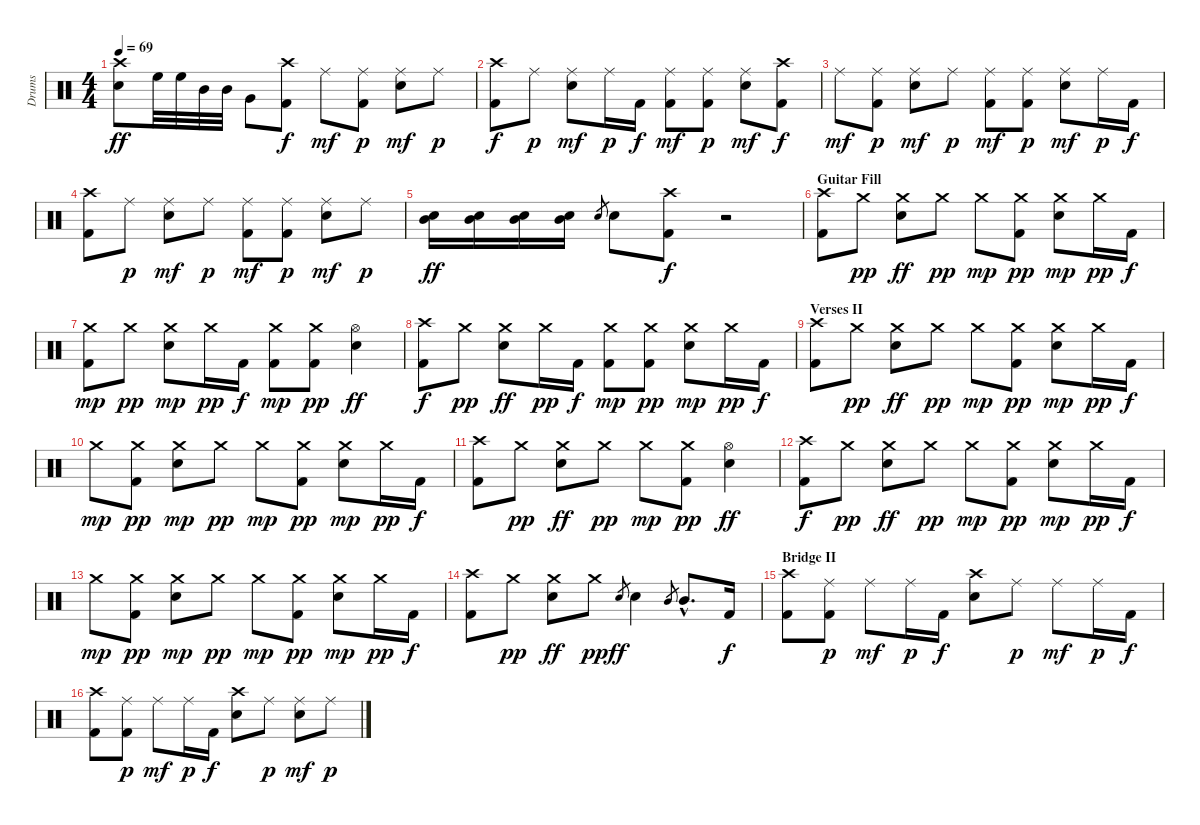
\track ("Drums" "Drums") {instrument percussion}
\staff {score}
\articulation defaults
\ts (4 4)
\tempo 69
\clef neutral
\ks c
("Snare (hit) 2" "Crash high (hit)").8{dy ff} "High Floor Tom (hit)".32 "High Floor Tom (hit)".32 "Mid Tom (hit)".32 "Mid Tom (hit)".32 "Very Low Tom (hit)".8 ("Crash high (hit)" "Kick (hit) 2").8{dy f} "Ride (middle)".8{dy mf} ("Kick (hit) 2" "Ride (middle)").8{dy p} ("Snare (hit) 2" "Ride (middle)").8{dy mf} "Ride (middle)".8{dy p} |
("Crash high (hit)" "Kick (hit) 2").8{dy f} "Ride (middle)".8{dy p} ("Snare (hit) 2" "Ride (middle)").8{dy mf} "Ride (middle)".16{dy p} "Kick (hit) 2".16{dy f} ("Ride (middle)" "Kick (hit) 2").8{dy mf} ("Kick (hit) 2" "Ride (middle)").8{dy p} ("Snare (hit) 2" "Ride (middle)").8{dy mf} ("Kick (hit) 2" "Crash high (hit)").8{dy f} |
"Ride (middle)".8{dy mf} ("Kick (hit) 2" "Ride (middle)").8{dy p} ("Snare (hit) 2" "Ride (middle)").8{dy mf} "Ride (middle)".8{dy p} ("Ride (middle)" "Kick (hit) 2").8{dy mf} ("Kick (hit) 2" "Ride (middle)").8{dy p} ("Snare (hit) 2" "Ride (middle)").8{dy mf} "Ride (middle)".16{dy p} "Kick (hit) 2".16{dy f} |
("Crash high (hit)" "Kick (hit) 2").8 "Ride (middle)".8{dy p} ("Snare (hit) 2" "Ride (middle)").8{dy mf} "Ride (middle)".8{dy p} ("Ride (middle)" "Kick (hit) 2").8{dy mf} ("Kick (hit) 2" "Ride (middle)").8{dy p} ("Snare (hit) 2" "Ride (middle)").8{dy mf} "Ride (middle)".8{dy p} |
("Snare (hit) 2" "Mid Tom (hit)").16{dy ff} ("Mid Tom (hit)" "Snare (hit) 2").16 ("Mid Tom (hit)" "Snare (hit) 2").16 ("Mid Tom (hit)" "Snare (hit) 2").16 "Snare (hit) 2".8{gr} "Snare (hit) 2".8 ("Crash high (hit)" "Kick (hit) 2").8{dy f} r.2 |
\section ("" "Guitar Fill")
("Crash high (hit)" "Kick (hit) 2").8 "Crash medium (hit)".8{dy pp} ("Crash medium (hit)" "Snare (hit) 2").8{dy ff} "Crash medium (hit)".8{dy pp} "Crash medium (hit)".8{dy mp} ("Crash medium (hit)" "Kick (hit) 2").8{dy pp} ("Snare (hit) 2" "Crash medium (hit)").8{dy mp} "Crash medium (hit)".16{dy pp} "Kick (hit) 2".16{dy f} |
("Kick (hit) 2" "Crash medium (hit)").8{dy mp} "Crash medium (hit)".8{dy pp} ("Snare (hit) 2" "Crash medium (hit)").8{dy mp} "Crash medium (hit)".16{dy pp} "Kick (hit) 2".16{dy f} ("Crash medium (hit)" "Kick (hit) 2").8{dy mp} ("Crash medium (hit)" "Kick (hit) 2").8{dy pp} ("Hi-Hat (open)" "Snare (hit) 2").4{dy ff} |
("Crash high (hit)" "Kick (hit) 2").8{dy f} "Crash medium (hit)".8{dy pp} ("Crash medium (hit)" "Snare (hit) 2").8{dy ff} "Crash medium (hit)".16{dy pp} "Kick (hit) 2".16{dy f} ("Kick (hit) 2" "Crash medium (hit)").8{dy mp} ("Crash medium (hit)" "Kick (hit) 2").8{dy pp} ("Snare (hit) 2" "Crash medium (hit)").8{dy mp} "Crash medium (hit)".16{dy pp} "Kick (hit) 2".16{dy f} |
\section ("" "Verses II")
("Crash high (hit)" "Kick (hit) 2").8 "Crash medium (hit)".8{dy pp} ("Crash medium (hit)" "Snare (hit) 2").8{dy ff} "Crash medium (hit)".8{dy pp} "Crash medium (hit)".8{dy mp} ("Crash medium (hit)" "Kick (hit) 2").8{dy pp} ("Snare (hit) 2" "Crash medium (hit)").8{dy mp} "Crash medium (hit)".16{dy pp} "Kick (hit) 2".16{dy f} |
"Crash medium (hit)".8{dy mp} ("Crash medium (hit)" "Kick (hit) 2").8{dy pp} ("Snare (hit) 2" "Crash medium (hit)").8{dy mp} "Crash medium (hit)".8{dy pp} "Crash medium (hit)".8{dy mp} ("Crash medium (hit)" "Kick (hit) 2").8{dy pp} ("Snare (hit) 2" "Crash medium (hit)").8{dy mp} "Crash medium (hit)".16{dy pp} "Kick (hit) 2".16{dy f} |
("Crash high (hit)" "Kick (hit) 2").8 "Crash medium (hit)".8{dy pp} ("Crash medium (hit)" "Snare (hit) 2").8{dy ff} "Crash medium (hit)".8{dy pp} "Crash medium (hit)".8{dy mp} ("Crash medium (hit)" "Kick (hit) 2").8{dy pp} ("Hi-Hat (open)" "Snare (hit) 2").4{dy ff} |
("Crash high (hit)" "Kick (hit) 2").8{dy f} "Crash medium (hit)".8{dy pp} ("Crash medium (hit)" "Snare (hit) 2").8{dy ff} "Crash medium (hit)".8{dy pp} "Crash medium (hit)".8{dy mp} ("Crash medium (hit)" "Kick (hit) 2").8{dy pp} ("Snare (hit) 2" "Crash medium (hit)").8{dy mp} "Crash medium (hit)".16{dy pp} "Kick (hit) 2".16{dy f} |
"Crash medium (hit)".8{dy mp} ("Crash medium (hit)" "Kick (hit) 2").8{dy pp} ("Snare (hit) 2" "Crash medium (hit)").8{dy mp} "Crash medium (hit)".8{dy pp} "Crash medium (hit)".8{dy mp} ("Crash medium (hit)" "Kick (hit) 2").8{dy pp} ("Snare (hit) 2" "Crash medium (hit)").8{dy mp} "Crash medium (hit)".16{dy pp} "Kick (hit) 2".16{dy f} |
("Crash high (hit)" "Kick (hit) 2").8 "Crash medium (hit)".8{dy pp} ("Crash medium (hit)" "Snare (hit) 2").8{dy ff} "Crash medium (hit)".8{dy pp} "Snare (hit) 2".8{gr dy ff} "Snare (hit) 2".4 "Mid Tom (hit)".8{gr} "Mid Tom (hit)"{hac}.8{d} "Kick (hit) 2".16{dy f} |
\section ("" "Bridge II")
("Crash high (hit)" "Kick (hit) 2").8 ("Ride (middle)" "Kick (hit) 2").8{dy p} "Ride (middle)".8{dy mf} "Ride (middle)".16{dy p} "Kick (hit) 2".16{dy f} ("Snare (hit) 2" "Crash high (hit)").8 "Ride (middle)".8{dy p} "Ride (middle)".8{dy mf} "Ride (middle)".16{dy p} "Kick (hit) 2".16{dy f} |
("Crash high (hit)" "Kick (hit) 2").8 ("Ride (middle)" "Kick (hit) 2").8{dy p} "Ride (middle)".8{dy mf} "Ride (middle)".16{dy p} "Kick (hit) 2".16{dy f} ("Snare (hit) 2" "Crash high (hit)").8 "Ride (middle)".8{dy p} ("Ride (middle)" "Snare (hit) 2").8{dy mf} "Ride (middle)".8{dy p}
